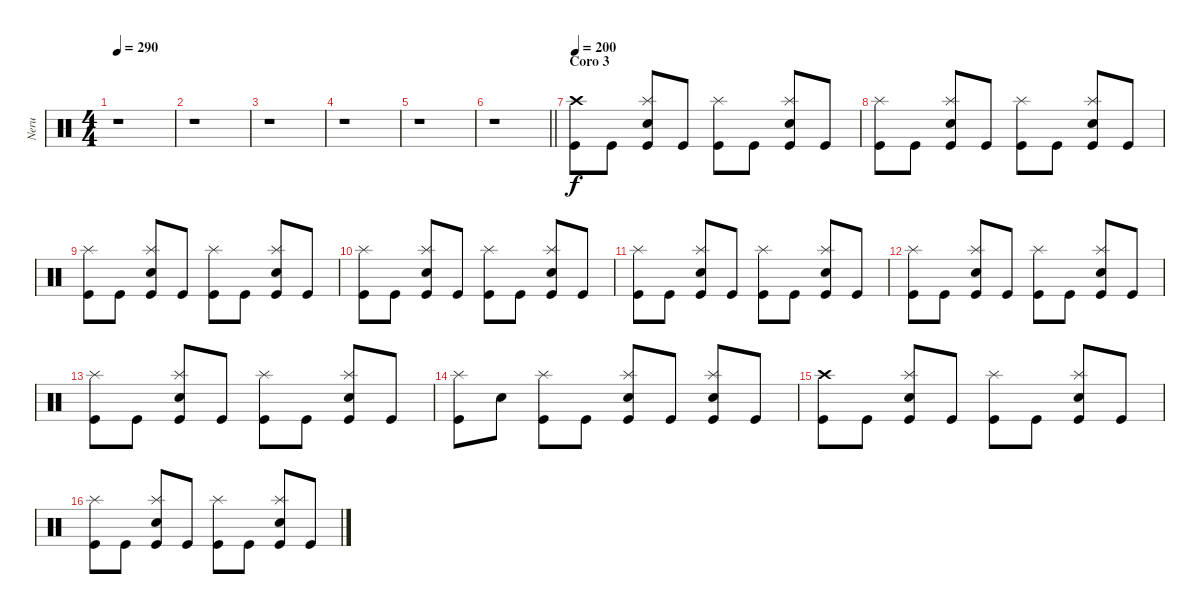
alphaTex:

\track ("Neru" "Neru") {instrument percussion}
\staff {score}
\articulation defaults
\ts (4 4)
\tempo 290
\clef neutral
\ks c
r.1{dy f} |
r.1 |
r.1 |
r.1 |
r.1 |
\barLineRight lightlight
r.1 |
\section ("" "Coro 3")
\tempo 200
("Crash high (hit)" "Kick (hit)").8 "Kick (hit)".8 ("Splash (hit)" "Electric Snare (hit)" "Kick (hit)").8 "Kick (hit)".8 ("Splash (hit)" "Kick (hit)").8 "Kick (hit)".8 ("Splash (hit)" "Electric Snare (hit)" "Kick (hit)").8 "Kick (hit)".8 |
("Splash (hit)" "Kick (hit)").8 "Kick (hit)".8 ("Splash (hit)" "Electric Snare (hit)" "Kick (hit)").8 "Kick (hit)".8 ("Splash (hit)" "Kick (hit)").8 "Kick (hit)".8 ("Splash (hit)" "Electric Snare (hit)" "Kick (hit)").8 "Kick (hit)".8 |
("Splash (hit)" "Kick (hit)").8 "Kick (hit)".8 ("Splash (hit)" "Electric Snare (hit)" "Kick (hit)").8 "Kick (hit)".8 ("Splash (hit)" "Kick (hit)").8 "Kick (hit)".8 ("Splash (hit)" "Electric Snare (hit)" "Kick (hit)").8 "Kick (hit)".8 |
("Splash (hit)" "Kick (hit)").8 "Kick (hit)".8 ("Splash (hit)" "Electric Snare (hit)" "Kick (hit)").8 "Kick (hit)".8 ("Splash (hit)" "Kick (hit)").8 "Kick (hit)".8 ("Splash (hit)" "Electric Snare (hit)" "Kick (hit)").8 "Kick (hit)".8 |
("Splash (hit)" "Kick (hit)").8 "Kick (hit)".8 ("Splash (hit)" "Electric Snare (hit)" "Kick (hit)").8 "Kick (hit)".8 ("Splash (hit)" "Kick (hit)").8 "Kick (hit)".8 ("Splash (hit)" "Electric Snare (hit)" "Kick (hit)").8 "Kick (hit)".8 |
("Splash (hit)" "Kick (hit)").8 "Kick (hit)".8 ("Splash (hit)" "Electric Snare (hit)" "Kick (hit)").8 "Kick (hit)".8 ("Splash (hit)" "Kick (hit)").8 "Kick (hit)".8 ("Splash (hit)" "Electric Snare (hit)" "Kick (hit)").8 "Kick (hit)".8 |
("Splash (hit)" "Kick (hit)").8 "Kick (hit)".8 ("Splash (hit)" "Electric Snare (hit)" "Kick (hit)").8 "Kick (hit)".8 ("Splash (hit)" "Kick (hit)").8 "Kick (hit)".8 ("Splash (hit)" "Electric Snare (hit)" "Kick (hit)").8 "Kick (hit)".8 |
("Splash (hit)" "Kick (hit)").8 "Electric Snare (hit)".8 ("Splash (hit)" "Kick (hit)").8 "Kick (hit)".8 ("Splash (hit)" "Electric Snare (hit)" "Kick (hit)").8 "Kick (hit)".8 ("Splash (hit)" "Electric Snare (hit)" "Kick (hit)").8 "Kick (hit)".8 |
("Crash high (hit)" "Kick (hit)").8 "Kick (hit)".8 ("Splash (hit)" "Electric Snare (hit)" "Kick (hit)").8 "Kick (hit)".8 ("Splash (hit)" "Kick (hit)").8 "Kick (hit)".8 ("Splash (hit)" "Electric Snare (hit)" "Kick (hit)").8 "Kick (hit)".8 |
("Splash (hit)" "Kick (hit)").8 "Kick (hit)".8 ("Splash (hit)" "Electric Snare (hit)" "Kick (hit)").8 "Kick (hit)".8 ("Splash (hit)" "Kick (hit)").8 "Kick (hit)".8 ("Splash (hit)" "Electric Snare (hit)" "Kick (hit)").8 "Kick (hit)".8
